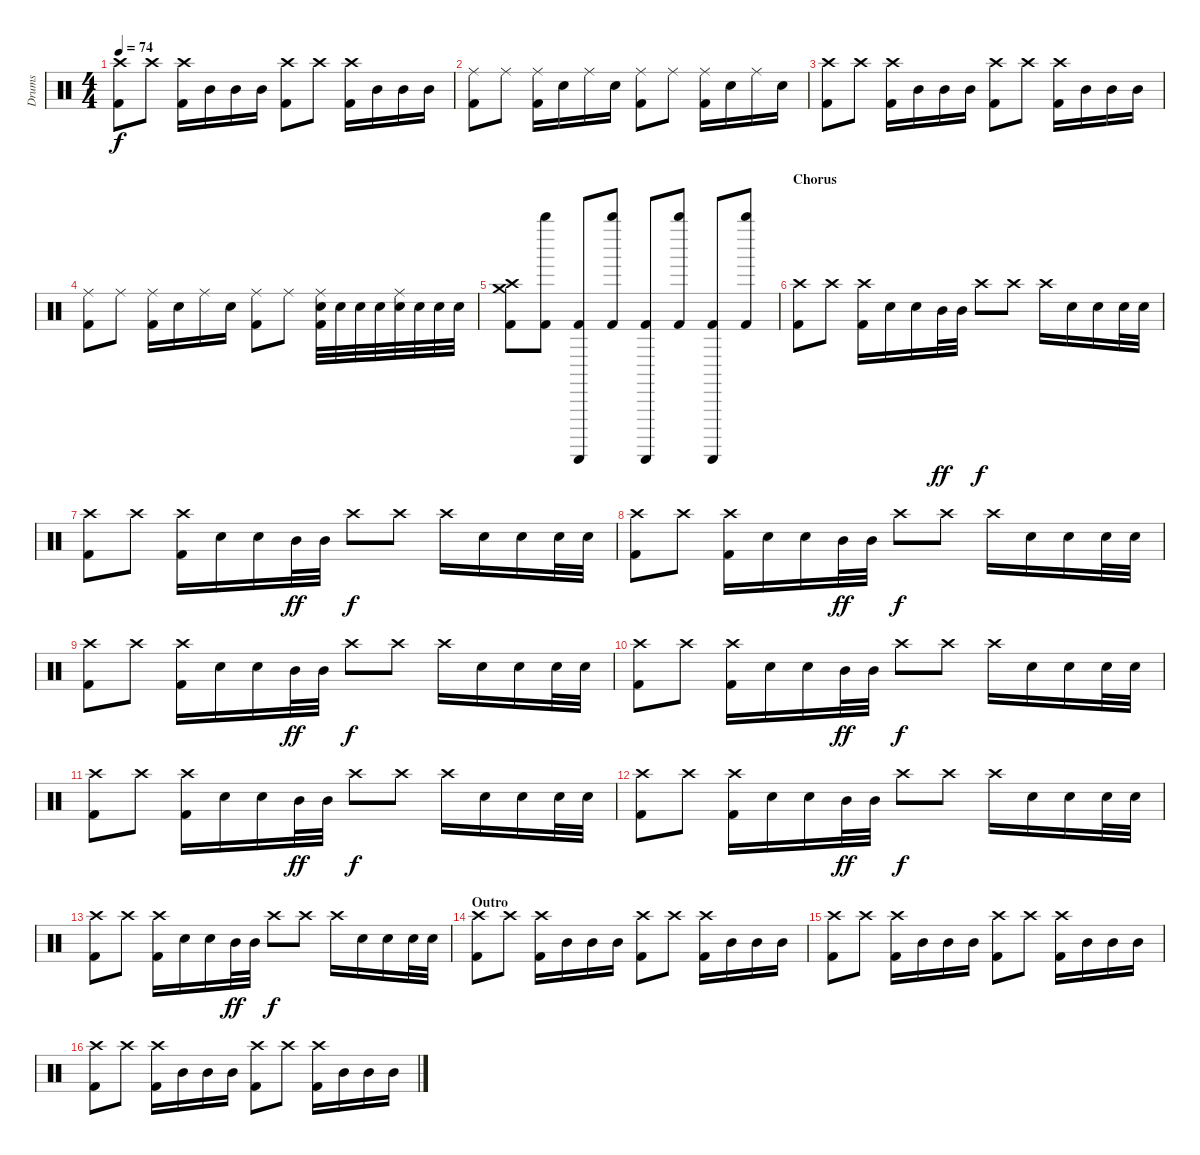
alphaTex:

\track ("Drums" "Drums") {instrument percussion}
\staff {score}
\articulation defaults
\ts (4 4)
\tempo 74
\clef neutral
\ks c
("Crash high (hit)" "Kick (hit) 2").8{dy f} "Crash high (hit)".8 ("Crash high (hit)" "Kick (hit) 2").16 "Mid Tom (hit)".16 "Mid Tom (hit)".16 "Mid Tom (hit)".16 ("Crash high (hit)" "Kick (hit) 2").8 "Crash high (hit)".8 ("Crash high (hit)" "Kick (hit) 2").16 "Mid Tom (hit)".16 "Mid Tom (hit)".16 "Mid Tom (hit)".16 |
("Ride (middle)" "Kick (hit) 2").8 "Ride (middle)".8 ("Ride (middle)" "Kick (hit) 2").16 "Electric Snare (hit)".16 "Ride (middle)".16 "Electric Snare (hit)".16 ("Ride (middle)" "Kick (hit) 2").8 "Ride (middle)".8 ("Ride (middle)" "Kick (hit) 2").16 "Electric Snare (hit)".16 "Ride (middle)".16 "Electric Snare (hit)".16 |
("Crash high (hit)" "Kick (hit) 2").8 "Crash high (hit)".8 ("Crash high (hit)" "Kick (hit) 2").16 "Mid Tom (hit)".16 "Mid Tom (hit)".16 "Mid Tom (hit)".16 ("Crash high (hit)" "Kick (hit) 2").8 "Crash high (hit)".8 ("Crash high (hit)" "Kick (hit) 2").16 "Mid Tom (hit)".16 "Mid Tom (hit)".16 "Mid Tom (hit)".16 |
("Ride (middle)" "Kick (hit) 2").8 "Ride (middle)".8 ("Ride (middle)" "Kick (hit) 2").16 "Electric Snare (hit)".16 "Ride (middle)".16 "Electric Snare (hit)".16 ("Ride (middle)" "Kick (hit) 2").8 "Ride (middle)".8 ("Ride (middle)" "Electric Snare (hit)" "Kick (hit) 2").32 "Electric Snare (hit)".32 "Electric Snare (hit)".32 "Electric Snare (hit)".32 ("Ride (middle)" "Electric Snare (hit)").32 "Electric Snare (hit)".32 "Electric Snare (hit)".32 "Electric Snare (hit)".32 |
("Crash medium (hit)" "Crash high (hit)" "Kick (hit) 2").8 ("Whistle high (hit)" "Kick (hit) 2").8 ("Guiro (scrap-return)" "Kick (hit) 2").8 ("Whistle high (hit)" "Kick (hit) 2").8 ("Guiro (scrap-return)" "Kick (hit) 2").8 ("Whistle high (hit)" "Kick (hit) 2").8 ("Guiro (scrap-return)" "Kick (hit) 2").8 ("Whistle high (hit)" "Kick (hit) 2").8 |
\section ("" "Chorus")
("Crash high (hit)" "Kick (hit) 2").8 "Crash high (hit)".8 ("Crash high (hit)" "Kick (hit) 2").16 "Electric Snare (hit)".16 "Electric Snare (hit)".16 "Mid Tom (hit)".32{dy ff} "Mid Tom (hit)".32 "Crash high (hit)".8{dy f} "Crash high (hit)".8 "Crash high (hit)".16 "Electric Snare (hit)".16 "Electric Snare (hit)".16 "Electric Snare (hit)".32 "Electric Snare (hit)".32 |
("Crash high (hit)" "Kick (hit) 2").8 "Crash high (hit)".8 ("Crash high (hit)" "Kick (hit) 2").16 "Electric Snare (hit)".16 "Electric Snare (hit)".16 "Mid Tom (hit)".32{dy ff} "Mid Tom (hit)".32 "Crash high (hit)".8{dy f} "Crash high (hit)".8 "Crash high (hit)".16 "Electric Snare (hit)".16 "Electric Snare (hit)".16 "Electric Snare (hit)".32 "Electric Snare (hit)".32 |
("Crash high (hit)" "Kick (hit) 2").8 "Crash high (hit)".8 ("Crash high (hit)" "Kick (hit) 2").16 "Electric Snare (hit)".16 "Electric Snare (hit)".16 "Mid Tom (hit)".32{dy ff} "Mid Tom (hit)".32 "Crash high (hit)".8{dy f} "Crash high (hit)".8 "Crash high (hit)".16 "Electric Snare (hit)".16 "Electric Snare (hit)".16 "Electric Snare (hit)".32 "Electric Snare (hit)".32 |
("Crash high (hit)" "Kick (hit) 2").8 "Crash high (hit)".8 ("Crash high (hit)" "Kick (hit) 2").16 "Electric Snare (hit)".16 "Electric Snare (hit)".16 "Mid Tom (hit)".32{dy ff} "Mid Tom (hit)".32 "Crash high (hit)".8{dy f} "Crash high (hit)".8 "Crash high (hit)".16 "Electric Snare (hit)".16 "Electric Snare (hit)".16 "Electric Snare (hit)".32 "Electric Snare (hit)".32 |
("Crash high (hit)" "Kick (hit) 2").8 "Crash high (hit)".8 ("Crash high (hit)" "Kick (hit) 2").16 "Electric Snare (hit)".16 "Electric Snare (hit)".16 "Mid Tom (hit)".32{dy ff} "Mid Tom (hit)".32 "Crash high (hit)".8{dy f} "Crash high (hit)".8 "Crash high (hit)".16 "Electric Snare (hit)".16 "Electric Snare (hit)".16 "Electric Snare (hit)".32 "Electric Snare (hit)".32 |
("Crash high (hit)" "Kick (hit) 2").8 "Crash high (hit)".8 ("Crash high (hit)" "Kick (hit) 2").16 "Electric Snare (hit)".16 "Electric Snare (hit)".16 "Mid Tom (hit)".32{dy ff} "Mid Tom (hit)".32 "Crash high (hit)".8{dy f} "Crash high (hit)".8 "Crash high (hit)".16 "Electric Snare (hit)".16 "Electric Snare (hit)".16 "Electric Snare (hit)".32 "Electric Snare (hit)".32 |
("Crash high (hit)" "Kick (hit) 2").8 "Crash high (hit)".8 ("Crash high (hit)" "Kick (hit) 2").16 "Electric Snare (hit)".16 "Electric Snare (hit)".16 "Mid Tom (hit)".32{dy ff} "Mid Tom (hit)".32 "Crash high (hit)".8{dy f} "Crash high (hit)".8 "Crash high (hit)".16 "Electric Snare (hit)".16 "Electric Snare (hit)".16 "Electric Snare (hit)".32 "Electric Snare (hit)".32 |
("Crash high (hit)" "Kick (hit) 2").8 "Crash high (hit)".8 ("Crash high (hit)" "Kick (hit) 2").16 "Electric Snare (hit)".16 "Electric Snare (hit)".16 "Mid Tom (hit)".32{dy ff} "Mid Tom (hit)".32 "Crash high (hit)".8{dy f} "Crash high (hit)".8 "Crash high (hit)".16 "Electric Snare (hit)".16 "Electric Snare (hit)".16 "Electric Snare (hit)".32 "Electric Snare (hit)".32 |
\section ("" "Outro")
("Crash high (hit)" "Kick (hit) 2").8 "Crash high (hit)".8 ("Crash high (hit)" "Kick (hit) 2").16 "Mid Tom (hit)".16 "Mid Tom (hit)".16 "Mid Tom (hit)".16 ("Crash high (hit)" "Kick (hit) 2").8 "Crash high (hit)".8 ("Crash high (hit)" "Kick (hit) 2").16 "Mid Tom (hit)".16 "Mid Tom (hit)".16 "Mid Tom (hit)".16 |
("Crash high (hit)" "Kick (hit) 2").8 "Crash high (hit)".8 ("Crash high (hit)" "Kick (hit) 2").16 "Mid Tom (hit)".16 "Mid Tom (hit)".16 "Mid Tom (hit)".16 ("Crash high (hit)" "Kick (hit) 2").8 "Crash high (hit)".8 ("Crash high (hit)" "Kick (hit) 2").16 "Mid Tom (hit)".16 "Mid Tom (hit)".16 "Mid Tom (hit)".16 |
("Crash high (hit)" "Kick (hit) 2").8 "Crash high (hit)".8 ("Crash high (hit)" "Kick (hit) 2").16 "Mid Tom (hit)".16 "Mid Tom (hit)".16 "Mid Tom (hit)".16 ("Crash high (hit)" "Kick (hit) 2").8 "Crash high (hit)".8 ("Crash high (hit)" "Kick (hit) 2").16 "Mid Tom (hit)".16 "Mid Tom (hit)".16 "Mid Tom (hit)".16
